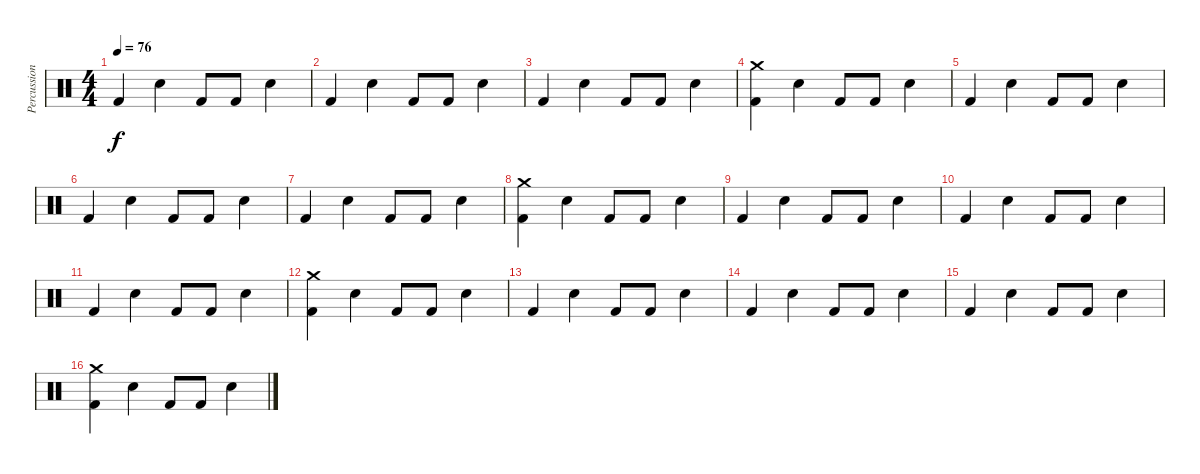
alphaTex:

\track ("Percussion" "Percussion") {instrument percussion}
\staff {score}
\articulation defaults
\ts (4 4)
\tempo 76
\clef neutral
\ks c "Kick (hit) 2".4{dy f} "Electric Snare (hit)".4 "Kick (hit) 2".8 "Kick (hit) 2".8 "Electric Snare (hit)".4
|
"Kick (hit) 2".4 "Electric Snare (hit)".4 "Kick (hit) 2".8 "Kick (hit) 2".8 "Electric Snare (hit)".4 |
"Kick (hit) 2".4 "Electric Snare (hit)".4 "Kick (hit) 2".8 "Kick (hit) 2".8 "Electric Snare (hit)".4 |
("Kick (hit) 2" "Crash medium (hit)").4 "Electric Snare (hit)".4 "Kick (hit) 2".8 "Kick (hit) 2".8 "Electric Snare (hit)".4 |
"Kick (hit) 2".4 "Electric Snare (hit)".4 "Kick (hit) 2".8 "Kick (hit) 2".8 "Electric Snare (hit)".4 |
"Kick (hit) 2".4 "Electric Snare (hit)".4 "Kick (hit) 2".8 "Kick (hit) 2".8 "Electric Snare (hit)".4 |
"Kick (hit) 2".4 "Electric Snare (hit)".4 "Kick (hit) 2".8 "Kick (hit) 2".8 "Electric Snare (hit)".4 |
("Kick (hit) 2" "Crash medium (hit)").4 "Electric Snare (hit)".4 "Kick (hit) 2".8 "Kick (hit) 2".8 "Electric Snare (hit)".4 |
"Kick (hit) 2".4 "Electric Snare (hit)".4 "Kick (hit) 2".8 "Kick (hit) 2".8 "Electric Snare (hit)".4 |
"Kick (hit) 2".4 "Electric Snare (hit)".4 "Kick (hit) 2".8 "Kick (hit) 2".8 "Electric Snare (hit)".4 |
"Kick (hit) 2".4 "Electric Snare (hit)".4 "Kick (hit) 2".8 "Kick (hit) 2".8 "Electric Snare (hit)".4 |
("Kick (hit) 2" "Crash medium (hit)").4 "Electric Snare (hit)".4 "Kick (hit) 2".8 "Kick (hit) 2".8 "Electric Snare (hit)".4 |
"Kick (hit) 2".4 "Electric Snare (hit)".4 "Kick (hit) 2".8 "Kick (hit) 2".8 "Electric Snare (hit)".4 |
"Kick (hit) 2".4 "Electric Snare (hit)".4 "Kick (hit) 2".8 "Kick (hit) 2".8 "Electric Snare (hit)".4 |
"Kick (hit) 2".4 "Electric Snare (hit)".4 "Kick (hit) 2".8 "Kick (hit) 2".8 "Electric Snare (hit)".4 |
("Kick (hit) 2" "Crash medium (hit)").4 "Electric Snare (hit)".4 "Kick (hit) 2".8 "Kick (hit) 2".8 "Electric Snare (hit)".4
